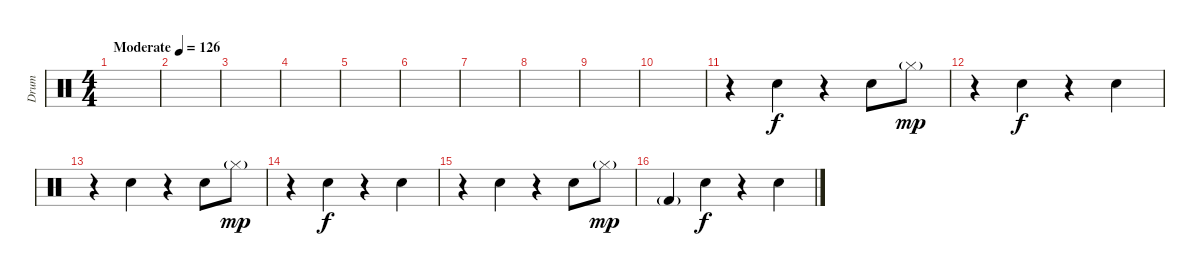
\track ("Drum" "Drum") {instrument percussion}
\staff {score}
\articulation defaults
\ts (4 4)
\tempo (126 "Moderate")
\clef neutral
\ks c
|
|
|
|
|
|
|
|
|
|
r.4 "Hand Clap (hit)".4 r.4 "Hand Clap (hit)".8 "Hi-Hat (closed)"{g}.8{dy mp} |
r.4 "Hand Clap (hit)".4{dy f} r.4 "Hand Clap (hit)".4 |
r.4 "Hand Clap (hit)".4 r.4 "Hand Clap (hit)".8 "Hi-Hat (closed)"{g}.8{dy mp} |
r.4 "Hand Clap (hit)".4{dy f} r.4 "Hand Clap (hit)".4 |
r.4 "Hand Clap (hit)".4 r.4 "Hand Clap (hit)".8 "Hi-Hat (closed)"{g}.8{dy mp} |
"Kick (hit) 2"{g}.4 "Hand Clap (hit)".4{dy f} r.4 "Hand Clap (hit)".4
